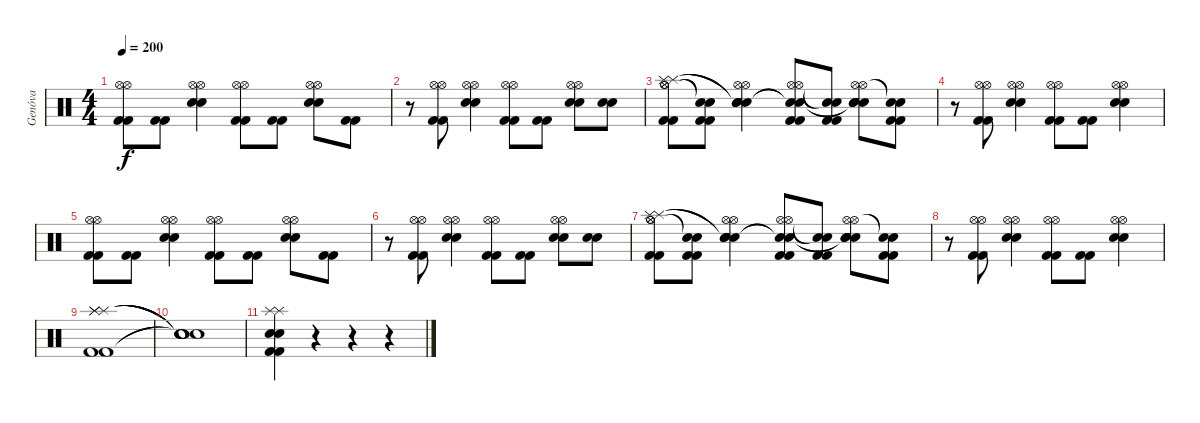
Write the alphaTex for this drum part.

\track ("Genóva" "Genóva") {instrument percussion}
\staff {score}
\articulation defaults
\ts (4 4)
\tempo 200
\clef neutral
\ks c
("Kick (hit) 2" "Kick (hit) 2" "Hi-Hat (open)" "Hi-Hat (open)").8{dy f} ("Kick (hit) 2" "Kick (hit) 2").8 ("Snare (hit) 2" "Snare (hit) 2" "Hi-Hat (open)" "Hi-Hat (open)").4 ("Kick (hit) 2" "Kick (hit) 2" "Hi-Hat (open)" "Hi-Hat (open)").8 ("Kick (hit) 2" "Kick (hit) 2").8 ("Snare (hit) 2" "Snare (hit) 2" "Hi-Hat (open)" "Hi-Hat (open)").8 ("Kick (hit) 2" "Kick (hit) 2").8 |
r.8 ("Kick (hit) 2" "Kick (hit) 2" "Hi-Hat (open)" "Hi-Hat (open)").8 ("Snare (hit) 2" "Snare (hit) 2" "Hi-Hat (open)" "Hi-Hat (open)").4 ("Kick (hit) 2" "Kick (hit) 2" "Hi-Hat (open)" "Hi-Hat (open)").8 ("Kick (hit) 2" "Kick (hit) 2").8 ("Snare (hit) 2" "Snare (hit) 2" "Hi-Hat (open)" "Hi-Hat (open)").8 ("Snare (hit) 2" "Snare (hit) 2").8 |
("Kick (hit) 2" "Kick (hit) 2" "Hi-Hat (open)" "Hi-Hat (open)" "Splash (hit)" "Splash (hit)").8 ("Kick (hit) 2" "Kick (hit) 2" "Snare (hit)"{t} "Snare (hit)"{t}).8 ("Snare (hit) 2" "Snare (hit) 2" "Hi-Hat (open)" "Hi-Hat (open)" "Snare (hit)"{t} "Snare (hit)"{t}).4 ("Kick (hit) 2" "Kick (hit) 2" "Hi-Hat (open)" "Hi-Hat (open)" "Snare (hit)"{t} "Snare (hit)"{t}).8 ("Kick (hit) 2" "Kick (hit) 2" "Snare (hit)"{t} "Snare (hit)"{t}).8 ("Snare (hit) 2" "Snare (hit) 2" "Hi-Hat (open)" "Hi-Hat (open)" "Snare (hit)"{t} "Snare (hit)"{t}).8 ("Kick (hit) 2" "Kick (hit) 2" "Snare (hit)"{t} "Snare (hit)"{t}).8 |
r.8 ("Kick (hit) 2" "Kick (hit) 2" "Hi-Hat (open)" "Hi-Hat (open)").8 ("Snare (hit) 2" "Snare (hit) 2" "Hi-Hat (open)" "Hi-Hat (open)").4 ("Kick (hit) 2" "Kick (hit) 2" "Hi-Hat (open)" "Hi-Hat (open)").8 ("Kick (hit) 2" "Kick (hit) 2").8 ("Snare (hit) 2" "Snare (hit) 2" "Hi-Hat (open)" "Hi-Hat (open)").4 |
("Kick (hit) 2" "Kick (hit) 2" "Hi-Hat (open)" "Hi-Hat (open)").8 ("Kick (hit) 2" "Kick (hit) 2").8 ("Snare (hit) 2" "Snare (hit) 2" "Hi-Hat (open)" "Hi-Hat (open)").4 ("Kick (hit) 2" "Kick (hit) 2" "Hi-Hat (open)" "Hi-Hat (open)").8 ("Kick (hit) 2" "Kick (hit) 2").8 ("Snare (hit) 2" "Snare (hit) 2" "Hi-Hat (open)" "Hi-Hat (open)").8 ("Kick (hit) 2" "Kick (hit) 2").8 |
r.8 ("Kick (hit) 2" "Kick (hit) 2" "Hi-Hat (open)" "Hi-Hat (open)").8 ("Snare (hit) 2" "Snare (hit) 2" "Hi-Hat (open)" "Hi-Hat (open)").4 ("Kick (hit) 2" "Kick (hit) 2" "Hi-Hat (open)" "Hi-Hat (open)").8 ("Kick (hit) 2" "Kick (hit) 2").8 ("Snare (hit) 2" "Snare (hit) 2" "Hi-Hat (open)" "Hi-Hat (open)").8 ("Snare (hit) 2" "Snare (hit) 2").8 |
("Kick (hit) 2" "Kick (hit) 2" "Hi-Hat (open)" "Hi-Hat (open)" "Splash (hit)" "Splash (hit)").8 ("Kick (hit) 2" "Kick (hit) 2" "Snare (hit)"{t} "Snare (hit)"{t}).8 ("Snare (hit) 2" "Snare (hit) 2" "Hi-Hat (open)" "Hi-Hat (open)" "Snare (hit)"{t} "Snare (hit)"{t}).4 ("Kick (hit) 2" "Kick (hit) 2" "Hi-Hat (open)" "Hi-Hat (open)" "Snare (hit)"{t} "Snare (hit)"{t}).8 ("Kick (hit) 2" "Kick (hit) 2" "Snare (hit)"{t} "Snare (hit)"{t}).8 ("Snare (hit) 2" "Snare (hit) 2" "Hi-Hat (open)" "Hi-Hat (open)" "Snare (hit)"{t} "Snare (hit)"{t}).8 ("Kick (hit) 2" "Kick (hit) 2" "Snare (hit)"{t} "Snare (hit)"{t}).8 |
r.8 ("Kick (hit) 2" "Kick (hit) 2" "Hi-Hat (open)" "Hi-Hat (open)").8 ("Snare (hit) 2" "Snare (hit) 2" "Hi-Hat (open)" "Hi-Hat (open)").4 ("Kick (hit) 2" "Kick (hit) 2" "Hi-Hat (open)" "Hi-Hat (open)").8 ("Kick (hit) 2" "Kick (hit) 2").8 ("Snare (hit) 2" "Snare (hit) 2" "Hi-Hat (open)" "Hi-Hat (open)").4 |
("Splash (hit)" "Splash (hit)" "Splash (hit)" "Kick (hit) 2" "Kick (hit) 2").1 |
("Snare (hit)"{t} "Snare (hit)"{t} "Snare (hit)"{t} "Snare (hit)"{t} "Snare (hit)"{t}).1 |
("Snare (hit) 2" "Snare (hit) 2" "Splash (hit)" "Splash (hit)" "Kick (hit) 2" "Kick (hit) 2").4 r.4 r.4 r.4
